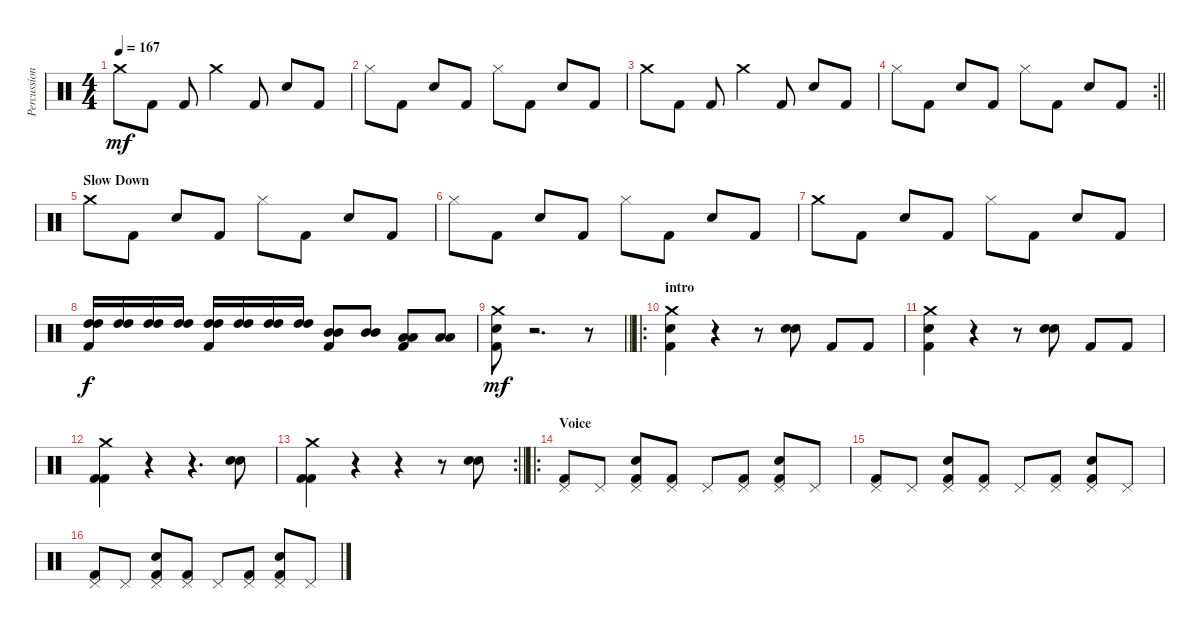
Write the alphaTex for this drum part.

\track ("Percussioni" "Percussion") {instrument percussion}
\staff {score}
\articulation defaults
\ts (4 4)
\tempo 167
\clef neutral
\ks c "Crash medium (hit)".8{dy mf} "Kick (hit) 2".8 "Kick (hit) 2".8 "Crash medium (hit)".4 "Kick (hit) 2".8 "Electric Snare (hit)".8 "Kick (hit) 2".8
|
"Hi-Hat (closed)".8 "Kick (hit) 2".8 "Electric Snare (hit)".8 "Kick (hit) 2".8 "Hi-Hat (closed)".8 "Kick (hit) 2".8 "Electric Snare (hit)".8 "Kick (hit) 2".8 |
"Crash medium (hit)".8 "Kick (hit) 2".8 "Kick (hit) 2".8 "Crash medium (hit)".4 "Kick (hit) 2".8 "Electric Snare (hit)".8 "Kick (hit) 2".8 |
\rc 2
\barLineRight lightlight "Hi-Hat (closed)".8 "Kick (hit) 2".8 "Electric Snare (hit)".8 "Kick (hit) 2".8 "Hi-Hat (closed)".8 "Kick (hit) 2".8 "Electric Snare (hit)".8 "Kick (hit) 2".8
|
\section ("" "Slow Down")
"Crash medium (hit)".8 "Kick (hit) 2".8 "Electric Snare (hit)".8 "Kick (hit) 2".8 "Hi-Hat (closed)".8 "Kick (hit) 2".8 "Electric Snare (hit)".8 "Kick (hit) 2".8 |
"Hi-Hat (closed)".8 "Kick (hit) 2".8 "Electric Snare (hit)".8 "Kick (hit) 2".8 "Hi-Hat (closed)".8 "Kick (hit) 2".8 "Electric Snare (hit)".8 "Kick (hit) 2".8 |
"Crash medium (hit)".8 "Kick (hit) 2".8 "Electric Snare (hit)".8 "Kick (hit) 2".8 "Hi-Hat (closed)".8 "Kick (hit) 2".8 "Electric Snare (hit)".8 "Kick (hit) 2".8 |
("High Tom (hit)" "High Tom (hit)" "Kick (hit) 2").16{dy f} ("High Tom (hit)" "High Tom (hit)").16 ("High Tom (hit)" "High Tom (hit)").16 ("High Tom (hit)" "High Tom (hit)").16 ("High Tom (hit)" "High Tom (hit)" "Kick (hit) 2").16 ("High Tom (hit)" "High Tom (hit)").16 ("High Tom (hit)" "High Tom (hit)").16 ("High Tom (hit)" "High Tom (hit)").16 ("Mid Tom (hit)" "Mid Tom (hit)" "Kick (hit) 2").8 ("Mid Tom (hit)" "Mid Tom (hit)").8 ("Low Tom (hit)" "Low Tom (hit)" "Kick (hit) 2").8 ("Low Tom (hit)" "Low Tom (hit)").8 |
\barLineRight lightlight
("Crash medium (hit)" "Electric Snare (hit)" "Kick (hit) 2").8{dy mf} r.2{d} r.8 |
\ro
\section ("" "intro")
("Crash medium (hit)" "Electric Snare (hit)" "Kick (hit) 2").4 r.4 r.8 ("Electric Snare (hit)" "Electric Snare (hit)").8 "Kick (hit) 2".8 "Kick (hit) 2".8 |
("Crash medium (hit)" "Electric Snare (hit)" "Kick (hit) 2").4 r.4 r.8 ("Electric Snare (hit)" "Electric Snare (hit)").8 "Kick (hit) 2".8 "Kick (hit) 2".8 |
("Crash medium (hit)" "Kick (hit) 2" "Kick (hit) 2").4 r.4 r.4{d} ("Electric Snare (hit)" "Electric Snare (hit)").8 |
\rc 2
\barLineRight lightlight
("Crash medium (hit)" "Kick (hit) 2" "Kick (hit) 2").4 r.4 r.4 r.8 ("Electric Snare (hit)" "Electric Snare (hit)").8 |
\ro
\section ("" "Voice")
("Pedal Hi-Hat (hit)" "Kick (hit) 2").8 "Pedal Hi-Hat (hit)".8 ("Pedal Hi-Hat (hit)" "Electric Snare (hit)" "Kick (hit) 2").8 ("Pedal Hi-Hat (hit)" "Kick (hit) 2").8 "Pedal Hi-Hat (hit)".8 ("Pedal Hi-Hat (hit)" "Kick (hit) 2").8 ("Pedal Hi-Hat (hit)" "Electric Snare (hit)" "Kick (hit) 2").8 "Pedal Hi-Hat (hit)".8 |
("Pedal Hi-Hat (hit)" "Kick (hit) 2").8 "Pedal Hi-Hat (hit)".8 ("Pedal Hi-Hat (hit)" "Electric Snare (hit)" "Kick (hit) 2").8 ("Pedal Hi-Hat (hit)" "Kick (hit) 2").8 "Pedal Hi-Hat (hit)".8 ("Pedal Hi-Hat (hit)" "Kick (hit) 2").8 ("Pedal Hi-Hat (hit)" "Electric Snare (hit)" "Kick (hit) 2").8 "Pedal Hi-Hat (hit)".8 |
("Pedal Hi-Hat (hit)" "Kick (hit) 2").8 "Pedal Hi-Hat (hit)".8 ("Pedal Hi-Hat (hit)" "Electric Snare (hit)" "Kick (hit) 2").8 ("Pedal Hi-Hat (hit)" "Kick (hit) 2").8 "Pedal Hi-Hat (hit)".8 ("Pedal Hi-Hat (hit)" "Kick (hit) 2").8 ("Pedal Hi-Hat (hit)" "Electric Snare (hit)" "Kick (hit) 2").8 "Pedal Hi-Hat (hit)".8
